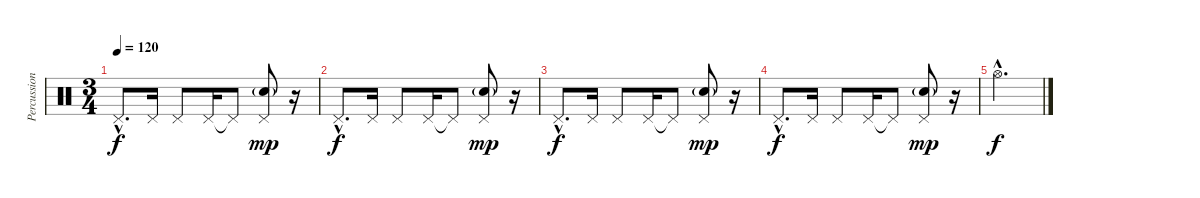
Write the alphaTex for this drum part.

\track ("Percussions" "Percussion") {instrument percussion}
\staff {score}
\articulation defaults
\ts (3 4)
\tempo 120
\clef neutral
\ks c "Pedal Hi-Hat (hit)"{hac}.8{d dy f volume 8} "Pedal Hi-Hat (hit)".16 "Pedal Hi-Hat (hit)".8 "Pedal Hi-Hat (hit)".16 "Pedal Hi-Hat (hit)"{t}.8
("Pedal Hi-Hat (hit)" "Electric Snare (hit)"{g}).8{dy mp} r.16 |
"Pedal Hi-Hat (hit)"{hac}.8{d dy f volume 8} "Pedal Hi-Hat (hit)".16 "Pedal Hi-Hat (hit)".8 "Pedal Hi-Hat (hit)".16 "Pedal Hi-Hat (hit)"{t}.8 ("Pedal Hi-Hat (hit)" "Electric Snare (hit)"{g}).8{dy mp} r.16 |
"Pedal Hi-Hat (hit)"{hac}.8{d dy f volume 8} "Pedal Hi-Hat (hit)".16 "Pedal Hi-Hat (hit)".8 "Pedal Hi-Hat (hit)".16 "Pedal Hi-Hat (hit)"{t}.8 ("Pedal Hi-Hat (hit)" "Electric Snare (hit)"{g}).8{dy mp} r.16 |
"Pedal Hi-Hat (hit)"{hac}.8{d dy f volume 8} "Pedal Hi-Hat (hit)".16 "Pedal Hi-Hat (hit)".8 "Pedal Hi-Hat (hit)".16 "Pedal Hi-Hat (hit)"{t}.8 ("Pedal Hi-Hat (hit)" "Electric Snare (hit)"{g}).8{dy mp} r.16 |
"Hi-Hat (open)"{hac}.2{d dy f}
